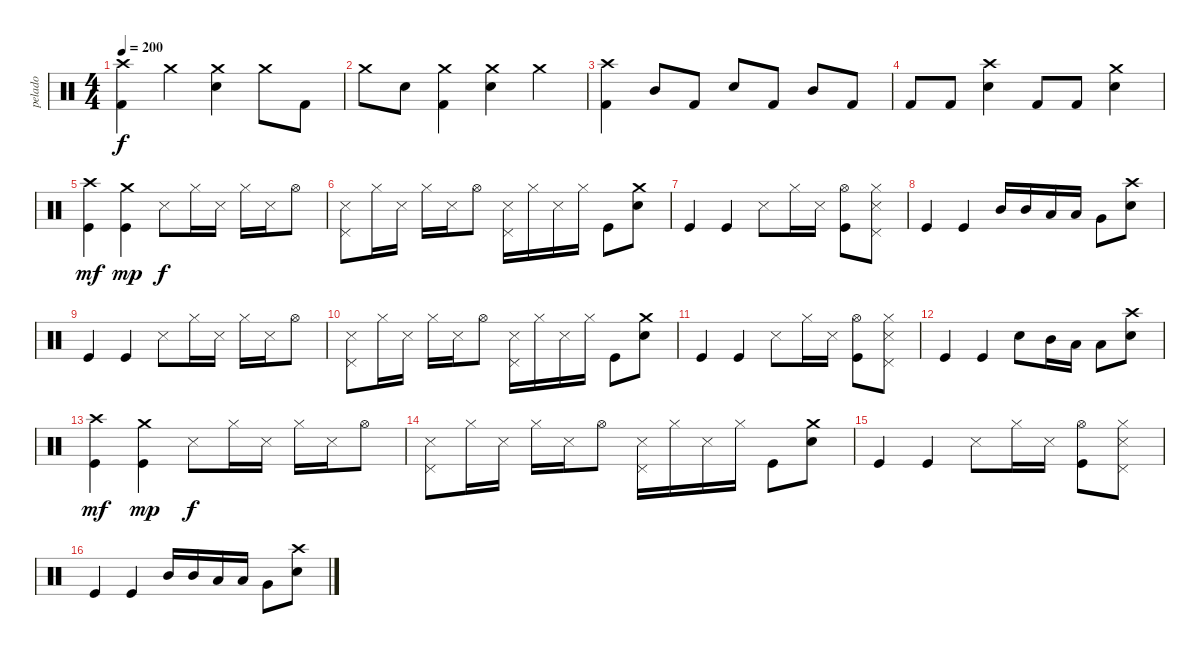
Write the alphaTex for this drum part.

\track ("pelado" "pelado") {instrument percussion}
\staff {score}
\articulation defaults
\ts (4 4)
\tempo 200
\clef neutral
\ks c
("Crash high (hit)" "Kick (hit) 2").4{dy f} "Crash medium (hit)".4 ("Crash medium (hit)" "Electric Snare (hit)").4 "Crash medium (hit)".8 "Kick (hit) 2".8 |
"Crash medium (hit)".8 "Electric Snare (hit)".8 ("Crash medium (hit)" "Kick (hit) 2").4 ("Crash medium (hit)" "Electric Snare (hit)").4 "Crash medium (hit)".4 |
("Crash high (hit)" "Kick (hit) 2").4 "Mid Tom (hit)".8 "Kick (hit) 2".8 "Electric Snare (hit)".8 "Kick (hit) 2".8 "Mid Tom (hit)".8 "Kick (hit) 2".8 |
"Kick (hit) 2".8 "Kick (hit) 2".8 ("Crash high (hit)" "Electric Snare (hit)").4 "Kick (hit) 2".8 "Kick (hit) 2".8 ("Crash medium (hit)" "Electric Snare (hit)").4 |
("Crash high (hit)" "Kick (hit)").4{dy mf volume 16} ("Crash medium (hit)" "Kick (hit)").4{dy mp} "Snare (side stick) 3".8{dy f} "Hi-Hat (closed)".16 "Snare (side stick) 3".16 "Hi-Hat (closed)".16 "Snare (side stick) 3".16 "Hi-Hat (open)".8 |
("Snare (side stick) 3" "Pedal Hi-Hat (hit)").8 "Hi-Hat (closed)".16 "Snare (side stick) 3".16 "Hi-Hat (closed)".16 "Snare (side stick) 3".16 "Hi-Hat (open)".8 ("Snare (side stick) 3" "Pedal Hi-Hat (hit)").16 "Hi-Hat (closed)".16 "Snare (side stick) 3".16 "Hi-Hat (closed)".16 "Kick (hit)".8 ("Crash medium (hit)" "Electric Snare (hit)").8 |
"Kick (hit)".4 "Kick (hit)".4 "Snare (side stick) 3".8 "Hi-Hat (closed)".16 "Snare (side stick) 3".16 ("Hi-Hat (open)" "Kick (hit)").8 ("Hi-Hat (closed)" "Snare (side stick) 3" "Pedal Hi-Hat (hit)").8 |
"Kick (hit)".4 "Kick (hit)".4 "Mid Tom (hit)".16 "Mid Tom (hit)".16 "Low Tom (hit)".16 "Low Tom (hit)".16 "Very Low Tom (hit)".8 ("Crash high (hit)" "Electric Snare (hit)").8 |
"Kick (hit)".4 "Kick (hit)".4 "Snare (side stick) 3".8 "Hi-Hat (closed)".16 "Snare (side stick) 3".16 "Hi-Hat (closed)".16 "Snare (side stick) 3".16 "Hi-Hat (open)".8 |
("Snare (side stick) 3" "Pedal Hi-Hat (hit)").8 "Hi-Hat (closed)".16 "Snare (side stick) 3".16 "Hi-Hat (closed)".16 "Snare (side stick) 3".16 "Hi-Hat (open)".8 ("Snare (side stick) 3" "Pedal Hi-Hat (hit)").16 "Hi-Hat (closed)".16 "Snare (side stick) 3".16 "Hi-Hat (closed)".16 "Kick (hit)".8 ("Crash medium (hit)" "Electric Snare (hit)").8 |
"Kick (hit)".4 "Kick (hit)".4 "Snare (side stick) 3".8 "Hi-Hat (closed)".16 "Snare (side stick) 3".16 ("Hi-Hat (open)" "Kick (hit)").8 ("Hi-Hat (closed)" "Snare (side stick) 3" "Pedal Hi-Hat (hit)").8 |
"Kick (hit)".4 "Kick (hit)".4 "Electric Snare (hit)".8 "Mid Tom (hit)".16 "Low Tom (hit)".16 "Low Tom (hit)".8 ("Crash high (hit)" "Electric Snare (hit)").8 |
("Crash high (hit)" "Kick (hit)").4{dy mf} ("Crash medium (hit)" "Kick (hit)").4{dy mp} "Snare (side stick) 3".8{dy f} "Hi-Hat (closed)".16 "Snare (side stick) 3".16 "Hi-Hat (closed)".16 "Snare (side stick) 3".16 "Hi-Hat (open)".8 |
("Snare (side stick) 3" "Pedal Hi-Hat (hit)").8 "Hi-Hat (closed)".16 "Snare (side stick) 3".16 "Hi-Hat (closed)".16 "Snare (side stick) 3".16 "Hi-Hat (open)".8 ("Snare (side stick) 3" "Pedal Hi-Hat (hit)").16 "Hi-Hat (closed)".16 "Snare (side stick) 3".16 "Hi-Hat (closed)".16 "Kick (hit)".8 ("Crash medium (hit)" "Electric Snare (hit)").8 |
"Kick (hit)".4 "Kick (hit)".4 "Snare (side stick) 3".8 "Hi-Hat (closed)".16 "Snare (side stick) 3".16 ("Hi-Hat (open)" "Kick (hit)").8 ("Hi-Hat (closed)" "Snare (side stick) 3" "Pedal Hi-Hat (hit)").8 |
"Kick (hit)".4 "Kick (hit)".4 "Mid Tom (hit)".16 "Mid Tom (hit)".16 "Low Tom (hit)".16 "Low Tom (hit)".16 "Very Low Tom (hit)".8 ("Crash high (hit)" "Electric Snare (hit)").8
